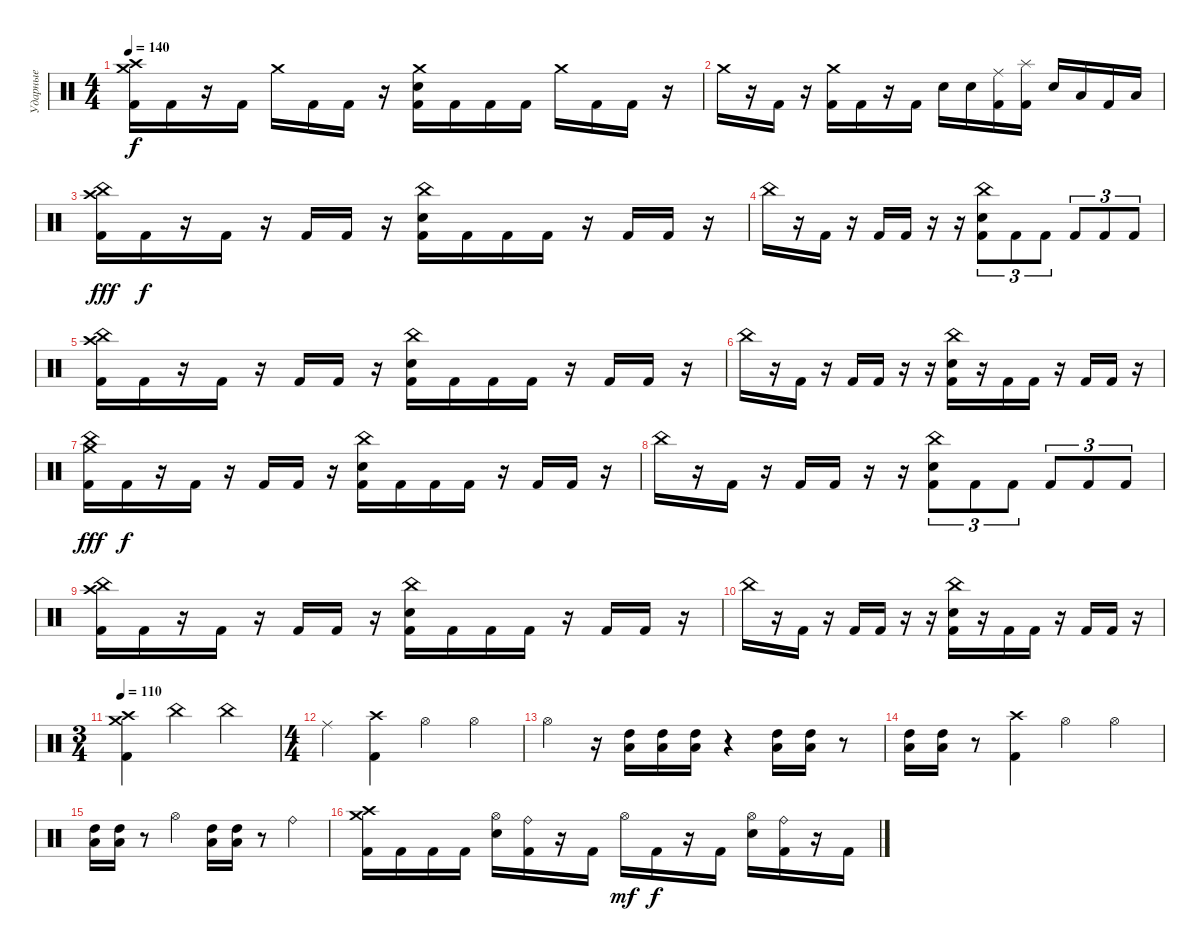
\track ("Ударные" "Ударные") {instrument percussion}
\staff {score}
\articulation defaults
\ts (4 4)
\tempo 140
\clef neutral
\ks c
("Crash medium (hit)" "Crash high (hit)" "Kick (hit) 2").16{dy f} "Kick (hit) 2".16 r.16 "Kick (hit) 2".16 "Crash medium (hit)".16 "Kick (hit) 2".16 "Kick (hit) 2".16 r.16 ("Crash medium (hit)" "Electric Snare (hit)" "Kick (hit) 2").16 "Kick (hit) 2".16 "Kick (hit) 2".16 "Kick (hit) 2".16 "Crash medium (hit)".16 "Kick (hit) 2".16 "Kick (hit) 2".16 r.16 |
"Crash medium (hit)".16 r.16 "Kick (hit) 2".16 r.16 ("Crash medium (hit)" "Kick (hit) 2").16 "Kick (hit) 2".16 r.16 "Kick (hit) 2".16 "Electric Snare (hit)".16 "Electric Snare (hit)".16 ("Ride (middle)" "Kick (hit) 2").16 ("Splash (hit)" "Kick (hit) 2").16 "Electric Snare (hit)".16 "Low Tom (hit)".16 "Kick (hit) 2".16 "Low Tom (hit)".16 |
("China (hit)" "Crash high (hit)" "Kick (hit) 2").16{dy fff} "Kick (hit) 2".16{dy f} r.16 "Kick (hit) 2".16 r.16 "Kick (hit) 2".16 "Kick (hit) 2".16 r.16 ("China (hit)" "Electric Snare (hit)" "Kick (hit) 2").16 "Kick (hit) 2".16 "Kick (hit) 2".16 "Kick (hit) 2".16 r.16 "Kick (hit) 2".16 "Kick (hit) 2".16 r.16 |
"China (hit)".16 r.16 "Kick (hit) 2".16 r.16 "Kick (hit) 2".16 "Kick (hit) 2".16 r.16 r.16 ("China (hit)" "Electric Snare (hit)" "Kick (hit) 2").8{tu (3 2)} "Kick (hit) 2".8{tu (3 2)} "Kick (hit) 2".8{tu (3 2)} "Kick (hit) 2".8{tu (3 2)} "Kick (hit) 2".8{tu (3 2)} "Kick (hit) 2".8{tu (3 2)} |
("China (hit)" "Crash high (hit)" "Kick (hit) 2").16 "Kick (hit) 2".16 r.16 "Kick (hit) 2".16 r.16 "Kick (hit) 2".16 "Kick (hit) 2".16 r.16 ("China (hit)" "Electric Snare (hit)" "Kick (hit) 2").16 "Kick (hit) 2".16 "Kick (hit) 2".16 "Kick (hit) 2".16 r.16 "Kick (hit) 2".16 "Kick (hit) 2".16 r.16 |
"China (hit)".16 r.16 "Kick (hit) 2".16 r.16 "Kick (hit) 2".16 "Kick (hit) 2".16 r.16 r.16 ("China (hit)" "Electric Snare (hit)" "Kick (hit) 2").16 r.16 "Kick (hit) 2".16 "Kick (hit) 2".16 r.16 "Kick (hit) 2".16 "Kick (hit) 2".16 r.16 |
("China (hit)" "Crash medium (hit)" "Kick (hit) 2").16{dy fff} "Kick (hit) 2".16{dy f} r.16 "Kick (hit) 2".16 r.16 "Kick (hit) 2".16 "Kick (hit) 2".16 r.16 ("China (hit)" "Electric Snare (hit)" "Kick (hit) 2").16 "Kick (hit) 2".16 "Kick (hit) 2".16 "Kick (hit) 2".16 r.16 "Kick (hit) 2".16 "Kick (hit) 2".16 r.16 |
"China (hit)".16 r.16 "Kick (hit) 2".16 r.16 "Kick (hit) 2".16 "Kick (hit) 2".16 r.16 r.16 ("China (hit)" "Electric Snare (hit)" "Kick (hit) 2").8{tu (3 2)} "Kick (hit) 2".8{tu (3 2)} "Kick (hit) 2".8{tu (3 2)} "Kick (hit) 2".8{tu (3 2)} "Kick (hit) 2".8{tu (3 2)} "Kick (hit) 2".8{tu (3 2)} |
("China (hit)" "Crash high (hit)" "Kick (hit) 2").16 "Kick (hit) 2".16 r.16 "Kick (hit) 2".16 r.16 "Kick (hit) 2".16 "Kick (hit) 2".16 r.16 ("China (hit)" "Electric Snare (hit)" "Kick (hit) 2").16 "Kick (hit) 2".16 "Kick (hit) 2".16 "Kick (hit) 2".16 r.16 "Kick (hit) 2".16 "Kick (hit) 2".16 r.16 |
"China (hit)".16 r.16 "Kick (hit) 2".16 r.16 "Kick (hit) 2".16 "Kick (hit) 2".16 r.16 r.16 ("China (hit)" "Electric Snare (hit)" "Kick (hit) 2").16 r.16 "Kick (hit) 2".16 "Kick (hit) 2".16 r.16 "Kick (hit) 2".16 "Kick (hit) 2".16 r.16 |
\ts (3 4)
\tempo 110
("Crash medium (hit)" "Crash high (hit)" "Kick (hit) 2").4 "China (hit)".4 "China (hit)".4 |
\ts (4 4)
"Ride (middle)".4 ("Crash high (hit)" "Kick (hit) 2").4 "Hi-Hat (open)".4 "Hi-Hat (open)".4 |
"Hi-Hat (open)".4 r.16 ("Low Tom (hit)" "High Tom (hit)").16 ("Low Tom (hit)" "High Tom (hit)").16 ("Low Tom (hit)" "High Tom (hit)").16 r.4 ("Low Tom (hit)" "High Tom (hit)").16 ("Low Tom (hit)" "High Tom (hit)").16 r.8 |
("Low Tom (hit)" "High Tom (hit)").16 ("Low Tom (hit)" "High Tom (hit)").16 r.8 ("Kick (hit) 2" "Crash high (hit)").4 "Hi-Hat (open)".4 "Hi-Hat (open)".4 |
("Low Tom (hit)" "High Tom (hit)").16 ("Low Tom (hit)" "High Tom (hit)").16 r.8 "Hi-Hat (open)".4 ("Low Tom (hit)" "High Tom (hit)").16 ("Low Tom (hit)" "High Tom (hit)").16 r.8 "Ride (bell)".4 |
("Crash high (hit)" "Crash medium (hit)" "Kick (hit) 2").16 "Kick (hit) 2".16 "Kick (hit) 2".16 "Kick (hit) 2".16 ("Hi-Hat (open)" "Electric Snare (hit)").16 ("Ride (bell)" "Kick (hit) 2").16 r.16 "Kick (hit) 2".16 "Hi-Hat (open)".16{dy mf} "Kick (hit) 2".16{dy f} r.16 "Kick (hit) 2".16 ("Hi-Hat (open)" "Electric Snare (hit)").16 ("Ride (bell)" "Kick (hit) 2").16 r.16 "Kick (hit) 2".16
